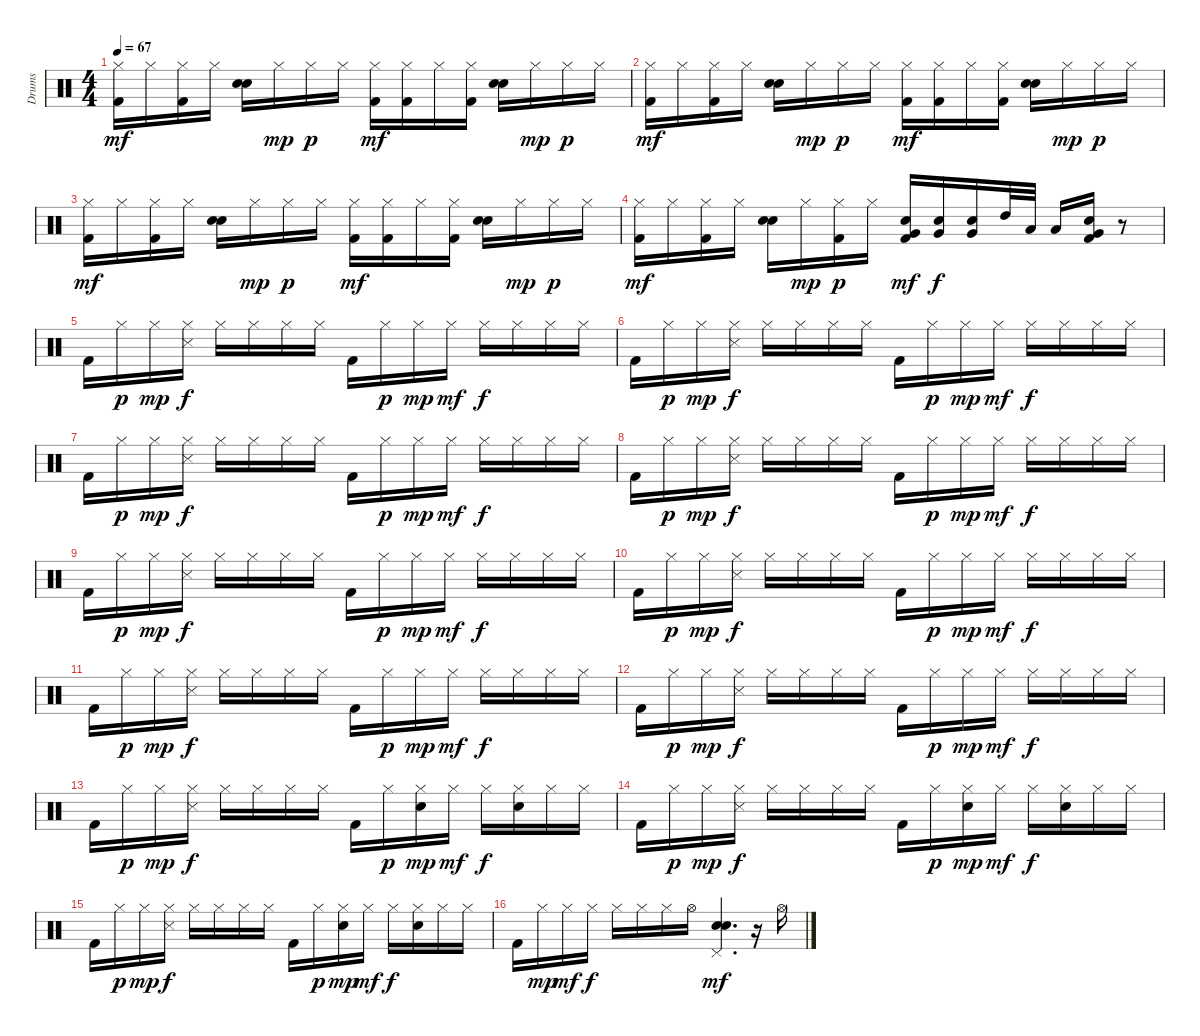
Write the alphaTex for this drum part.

\track ("Drums" "Drums") {instrument percussion}
\staff {score}
\articulation defaults
\ts (4 4)
\tempo 67
\clef neutral
\ks c
("Hi-Hat (closed)" "Kick (hit) 2").16{dy mf} "Hi-Hat (closed)".16 ("Hi-Hat (closed)" "Kick (hit) 2").16 "Hi-Hat (closed)".16 ("Hand Clap (hit)" "Snare (hit) 2").16 "Hi-Hat (closed)".16{dy mp} "Hi-Hat (closed)".16{dy p} "Hi-Hat (closed)".16 ("Hi-Hat (closed)" "Kick (hit) 2").16{dy mf} ("Hi-Hat (closed)" "Kick (hit) 2").16 "Hi-Hat (closed)".16 ("Hi-Hat (closed)" "Kick (hit) 2").16 ("Hand Clap (hit)" "Snare (hit) 2").16 "Hi-Hat (closed)".16{dy mp} "Hi-Hat (closed)".16{dy p} "Hi-Hat (closed)".16 |
("Hi-Hat (closed)" "Kick (hit) 2").16{dy mf} "Hi-Hat (closed)".16 ("Hi-Hat (closed)" "Kick (hit) 2").16 "Hi-Hat (closed)".16 ("Hand Clap (hit)" "Snare (hit) 2").16 "Hi-Hat (closed)".16{dy mp} "Hi-Hat (closed)".16{dy p} "Hi-Hat (closed)".16 ("Hi-Hat (closed)" "Kick (hit) 2").16{dy mf} ("Hi-Hat (closed)" "Kick (hit) 2").16 "Hi-Hat (closed)".16 ("Hi-Hat (closed)" "Kick (hit) 2").16 ("Hand Clap (hit)" "Snare (hit) 2").16 "Hi-Hat (closed)".16{dy mp} "Hi-Hat (closed)".16{dy p} "Hi-Hat (closed)".16 |
("Hi-Hat (closed)" "Kick (hit) 2").16{dy mf} "Hi-Hat (closed)".16 ("Hi-Hat (closed)" "Kick (hit) 2").16 "Hi-Hat (closed)".16 ("Hand Clap (hit)" "Snare (hit) 2").16 "Hi-Hat (closed)".16{dy mp} "Hi-Hat (closed)".16{dy p} "Hi-Hat (closed)".16 ("Hi-Hat (closed)" "Kick (hit) 2").16{dy mf} ("Hi-Hat (closed)" "Kick (hit) 2").16 "Hi-Hat (closed)".16 ("Hi-Hat (closed)" "Kick (hit) 2").16 ("Hand Clap (hit)" "Snare (hit) 2").16 "Hi-Hat (closed)".16{dy mp} "Hi-Hat (closed)".16{dy p} "Hi-Hat (closed)".16 |
("Hi-Hat (closed)" "Kick (hit) 2").16{dy mf} "Hi-Hat (closed)".16 ("Hi-Hat (closed)" "Kick (hit) 2").16 "Hi-Hat (closed)".16 ("Hand Clap (hit)" "Snare (hit) 2").16 "Hi-Hat (closed)".16{dy mp} ("Hi-Hat (closed)" "Kick (hit) 2").16{dy p} "Hi-Hat (closed)".16 ("Very Low Tom (hit)" "Snare (hit) 2" "Kick (hit) 2").16{dy mf} ("Very Low Tom (hit)" "Snare (hit) 2").16{dy f} ("Very Low Tom (hit)" "Snare (hit) 2").16 "High Tom (hit)".32 "Low Tom (hit)".32 "Low Tom (hit)".16 ("Very Low Tom (hit)" "Hand Clap (hit)" "Kick (hit) 2").16 r.8 |
"Kick (hit) 2".16 "Hi-Hat (closed)".16{dy p} "Hi-Hat (closed)".16{dy mp} ("Hi-Hat (closed)" "Snare (side stick) 3").16{dy f} "Hi-Hat (closed)".16 "Hi-Hat (closed)".16 "Hi-Hat (closed)".16 "Hi-Hat (closed)".16 "Kick (hit) 2".16 "Hi-Hat (closed)".16{dy p} "Hi-Hat (closed)".16{dy mp} "Hi-Hat (closed)".16{dy mf} "Hi-Hat (closed)".16{dy f} "Hi-Hat (closed)".16 "Hi-Hat (closed)".16 "Hi-Hat (closed)".16 |
"Kick (hit) 2".16 "Hi-Hat (closed)".16{dy p} "Hi-Hat (closed)".16{dy mp} ("Hi-Hat (closed)" "Snare (side stick) 3").16{dy f} "Hi-Hat (closed)".16 "Hi-Hat (closed)".16 "Hi-Hat (closed)".16 "Hi-Hat (closed)".16 "Kick (hit) 2".16 "Hi-Hat (closed)".16{dy p} "Hi-Hat (closed)".16{dy mp} "Hi-Hat (closed)".16{dy mf} "Hi-Hat (closed)".16{dy f} "Hi-Hat (closed)".16 "Hi-Hat (closed)".16 "Hi-Hat (closed)".16 |
"Kick (hit) 2".16 "Hi-Hat (closed)".16{dy p} "Hi-Hat (closed)".16{dy mp} ("Hi-Hat (closed)" "Snare (side stick) 3").16{dy f} "Hi-Hat (closed)".16 "Hi-Hat (closed)".16 "Hi-Hat (closed)".16 "Hi-Hat (closed)".16 "Kick (hit) 2".16 "Hi-Hat (closed)".16{dy p} "Hi-Hat (closed)".16{dy mp} "Hi-Hat (closed)".16{dy mf} "Hi-Hat (closed)".16{dy f} "Hi-Hat (closed)".16 "Hi-Hat (closed)".16 "Hi-Hat (closed)".16 |
"Kick (hit) 2".16 "Hi-Hat (closed)".16{dy p} "Hi-Hat (closed)".16{dy mp} ("Hi-Hat (closed)" "Snare (side stick) 3").16{dy f} "Hi-Hat (closed)".16 "Hi-Hat (closed)".16 "Hi-Hat (closed)".16 "Hi-Hat (closed)".16 "Kick (hit) 2".16 "Hi-Hat (closed)".16{dy p} "Hi-Hat (closed)".16{dy mp} "Hi-Hat (closed)".16{dy mf} "Hi-Hat (closed)".16{dy f} "Hi-Hat (closed)".16 "Hi-Hat (closed)".16 "Hi-Hat (closed)".16 |
"Kick (hit) 2".16 "Hi-Hat (closed)".16{dy p} "Hi-Hat (closed)".16{dy mp} ("Hi-Hat (closed)" "Snare (side stick) 3").16{dy f} "Hi-Hat (closed)".16 "Hi-Hat (closed)".16 "Hi-Hat (closed)".16 "Hi-Hat (closed)".16 "Kick (hit) 2".16 "Hi-Hat (closed)".16{dy p} "Hi-Hat (closed)".16{dy mp} "Hi-Hat (closed)".16{dy mf} "Hi-Hat (closed)".16{dy f} "Hi-Hat (closed)".16 "Hi-Hat (closed)".16 "Hi-Hat (closed)".16 |
"Kick (hit) 2".16 "Hi-Hat (closed)".16{dy p} "Hi-Hat (closed)".16{dy mp} ("Hi-Hat (closed)" "Snare (side stick) 3").16{dy f} "Hi-Hat (closed)".16 "Hi-Hat (closed)".16 "Hi-Hat (closed)".16 "Hi-Hat (closed)".16 "Kick (hit) 2".16 "Hi-Hat (closed)".16{dy p} "Hi-Hat (closed)".16{dy mp} "Hi-Hat (closed)".16{dy mf} "Hi-Hat (closed)".16{dy f} "Hi-Hat (closed)".16 "Hi-Hat (closed)".16 "Hi-Hat (closed)".16 |
"Kick (hit) 2".16 "Hi-Hat (closed)".16{dy p} "Hi-Hat (closed)".16{dy mp} ("Hi-Hat (closed)" "Snare (side stick) 3").16{dy f} "Hi-Hat (closed)".16 "Hi-Hat (closed)".16 "Hi-Hat (closed)".16 "Hi-Hat (closed)".16 "Kick (hit) 2".16 "Hi-Hat (closed)".16{dy p} "Hi-Hat (closed)".16{dy mp} "Hi-Hat (closed)".16{dy mf} "Hi-Hat (closed)".16{dy f} "Hi-Hat (closed)".16 "Hi-Hat (closed)".16 "Hi-Hat (closed)".16 |
"Kick (hit) 2".16 "Hi-Hat (closed)".16{dy p} "Hi-Hat (closed)".16{dy mp} ("Hi-Hat (closed)" "Snare (side stick) 3").16{dy f} "Hi-Hat (closed)".16 "Hi-Hat (closed)".16 "Hi-Hat (closed)".16 "Hi-Hat (closed)".16 "Kick (hit) 2".16 "Hi-Hat (closed)".16{dy p} "Hi-Hat (closed)".16{dy mp} "Hi-Hat (closed)".16{dy mf} "Hi-Hat (closed)".16{dy f} "Hi-Hat (closed)".16 "Hi-Hat (closed)".16 "Hi-Hat (closed)".16 |
"Kick (hit) 2".16 "Hi-Hat (closed)".16{dy p} "Hi-Hat (closed)".16{dy mp} ("Hi-Hat (closed)" "Snare (side stick) 3").16{dy f} "Hi-Hat (closed)".16 "Hi-Hat (closed)".16 "Hi-Hat (closed)".16 "Hi-Hat (closed)".16 "Kick (hit) 2".16 "Hi-Hat (closed)".16{dy p} ("Hi-Hat (closed)" "Hand Clap (hit)").16{dy mp} "Hi-Hat (closed)".16{dy mf} "Hi-Hat (closed)".16{dy f} ("Hi-Hat (closed)" "Hand Clap (hit)").16 "Hi-Hat (closed)".16 "Hi-Hat (closed)".16 |
"Kick (hit) 2".16 "Hi-Hat (closed)".16{dy p} "Hi-Hat (closed)".16{dy mp} ("Hi-Hat (closed)" "Snare (side stick) 3").16{dy f} "Hi-Hat (closed)".16 "Hi-Hat (closed)".16 "Hi-Hat (closed)".16 "Hi-Hat (closed)".16 "Kick (hit) 2".16 "Hi-Hat (closed)".16{dy p} ("Hi-Hat (closed)" "Hand Clap (hit)").16{dy mp} "Hi-Hat (closed)".16{dy mf} "Hi-Hat (closed)".16{dy f} ("Hi-Hat (closed)" "Hand Clap (hit)").16 "Hi-Hat (closed)".16 "Hi-Hat (closed)".16 |
"Kick (hit) 2".16 "Hi-Hat (closed)".16{dy p} "Hi-Hat (closed)".16{dy mp} ("Hi-Hat (closed)" "Snare (side stick) 3").16{dy f} "Hi-Hat (closed)".16 "Hi-Hat (closed)".16 "Hi-Hat (closed)".16 "Hi-Hat (closed)".16 "Kick (hit) 2".16 "Hi-Hat (closed)".16{dy p} ("Hi-Hat (closed)" "Hand Clap (hit)").16{dy mp} "Hi-Hat (closed)".16{dy mf} "Hi-Hat (closed)".16{dy f} ("Hi-Hat (closed)" "Hand Clap (hit)").16 "Hi-Hat (closed)".16 "Hi-Hat (closed)".16 |
"Kick (hit) 2".16 "Hi-Hat (closed)".16{dy mp} "Hi-Hat (closed)".16{dy mf} "Hi-Hat (closed)".16{dy f} "Hi-Hat (closed)".16 "Hi-Hat (closed)".16 "Hi-Hat (closed)".16 "Hi-Hat (open)".16 ("Pedal Hi-Hat (hit)" "Hand Clap (hit)" "Snare (hit) 2").4{d dy mf} r.16 "Hi-Hat (open)".16
